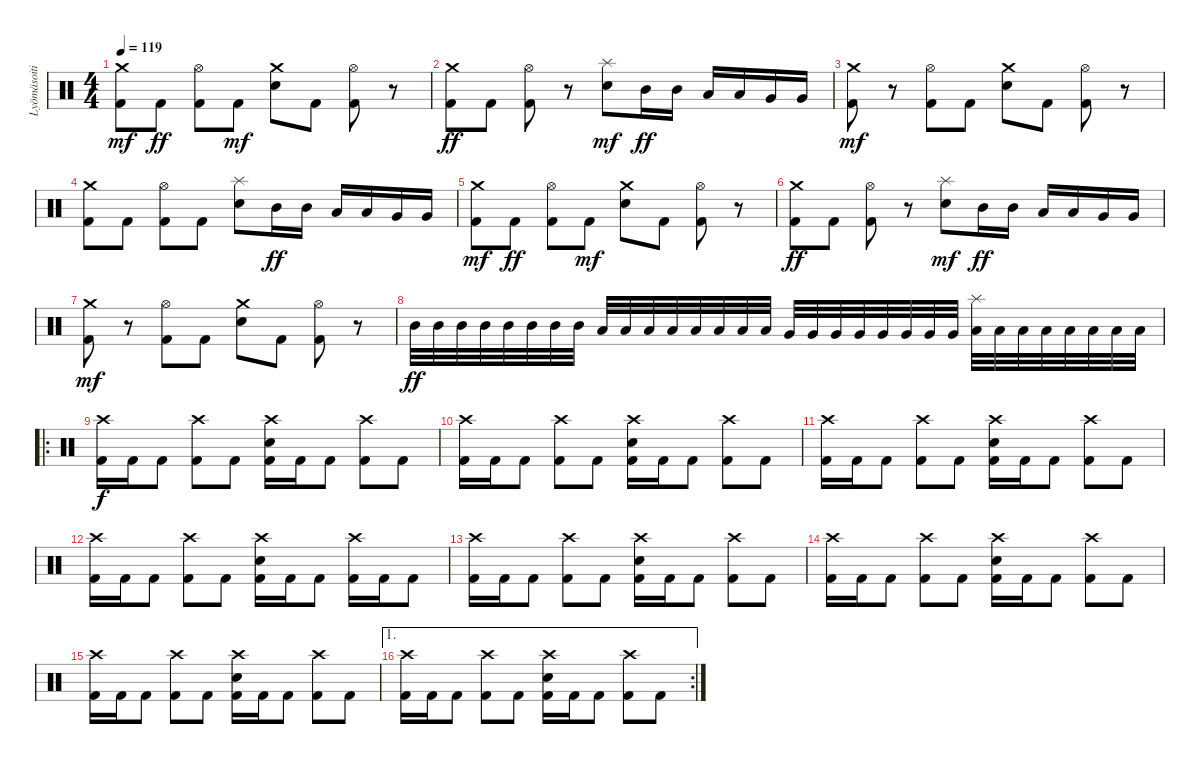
\track ("Lyömäsoitin" "Lyömäsoiti") {instrument percussion}
\staff {score}
\articulation defaults
\ts (4 4)
\tempo 119
\clef neutral
\ks c
("Crash medium (hit)" "Kick (hit) 2").8{dy mf} "Kick (hit) 2".8{dy ff} ("Hi-Hat (open)" "Kick (hit) 2").8 "Kick (hit) 2".8{dy mf} ("Crash medium (hit)" "Snare (hit) 2").8 "Kick (hit) 2".8 ("Hi-Hat (open)" "Kick (hit) 2").8 r.8 |
("Crash medium (hit)" "Kick (hit) 2").8{dy ff} "Kick (hit) 2".8 ("Hi-Hat (open)" "Kick (hit) 2").8 r.8 ("Splash (hit)" "Snare (hit) 2").8{dy mf} "Mid Tom (hit)".16{dy ff} "Mid Tom (hit)".16 "Low Tom (hit)".16 "Low Tom (hit)".16 "Very Low Tom (hit)".16 "Very Low Tom (hit)".16 |
("Crash medium (hit)" "Kick (hit) 2").8{dy mf} r.8 ("Hi-Hat (open)" "Kick (hit) 2").8 "Kick (hit) 2".8 ("Crash medium (hit)" "Snare (hit) 2").8 "Kick (hit) 2".8 ("Hi-Hat (open)" "Kick (hit) 2").8 r.8 |
("Crash medium (hit)" "Kick (hit) 2").8 "Kick (hit) 2".8 ("Hi-Hat (open)" "Kick (hit) 2").8 "Kick (hit) 2".8 ("Splash (hit)" "Snare (hit) 2").8 "Mid Tom (hit)".16{dy ff} "Mid Tom (hit)".16 "Low Tom (hit)".16 "Low Tom (hit)".16 "Very Low Tom (hit)".16 "Very Low Tom (hit)".16 |
("Crash medium (hit)" "Kick (hit) 2").8{dy mf} "Kick (hit) 2".8{dy ff} ("Hi-Hat (open)" "Kick (hit) 2").8 "Kick (hit) 2".8{dy mf} ("Crash medium (hit)" "Snare (hit) 2").8 "Kick (hit) 2".8 ("Hi-Hat (open)" "Kick (hit) 2").8 r.8 |
("Crash medium (hit)" "Kick (hit) 2").8{dy ff} "Kick (hit) 2".8 ("Hi-Hat (open)" "Kick (hit) 2").8 r.8 ("Splash (hit)" "Snare (hit) 2").8{dy mf} "Mid Tom (hit)".16{dy ff} "Mid Tom (hit)".16 "Low Tom (hit)".16 "Low Tom (hit)".16 "Very Low Tom (hit)".16 "Very Low Tom (hit)".16 |
("Crash medium (hit)" "Kick (hit) 2").8{dy mf} r.8 ("Hi-Hat (open)" "Kick (hit) 2").8 "Kick (hit) 2".8 ("Crash medium (hit)" "Snare (hit) 2").8 "Kick (hit) 2".8 ("Hi-Hat (open)" "Kick (hit) 2").8 r.8 |
"Mid Tom (hit)".32{dy ff} "Mid Tom (hit)".32 "Mid Tom (hit)".32 "Mid Tom (hit)".32 "Mid Tom (hit)".32 "Mid Tom (hit)".32 "Mid Tom (hit)".32 "Mid Tom (hit)".32 "Low Tom (hit)".32 "Low Tom (hit)".32 "Low Tom (hit)".32 "Low Tom (hit)".32 "Low Tom (hit)".32 "Low Tom (hit)".32 "Low Tom (hit)".32 "Low Tom (hit)".32 "Very Low Tom (hit)".32 "Very Low Tom (hit)".32 "Very Low Tom (hit)".32 "Very Low Tom (hit)".32 "Very Low Tom (hit)".32 "Very Low Tom (hit)".32 "Very Low Tom (hit)".32 "Very Low Tom (hit)".32 ("Splash (hit)" "Low Floor Tom (hit)").32 "Low Floor Tom (hit)".32 "Low Floor Tom (hit)".32 "Low Floor Tom (hit)".32 "Low Floor Tom (hit)".32 "Low Floor Tom (hit)".32 "Low Floor Tom (hit)".32 "Low Floor Tom (hit)".32 |
\ro
("Crash high (hit)" "Kick (hit) 2").16{dy f} "Kick (hit) 2".16 "Kick (hit) 2".8 ("Crash high (hit)" "Kick (hit) 2").8 "Kick (hit) 2".8 ("Crash high (hit)" "Snare (hit) 2" "Kick (hit) 2").16 "Kick (hit) 2".16 "Kick (hit) 2".8 ("Crash high (hit)" "Kick (hit) 2").8 "Kick (hit) 2".8 |
("Crash high (hit)" "Kick (hit) 2").16 "Kick (hit) 2".16 "Kick (hit) 2".8 ("Crash high (hit)" "Kick (hit) 2").8 "Kick (hit) 2".8 ("Crash high (hit)" "Snare (hit) 2" "Kick (hit) 2").16 "Kick (hit) 2".16 "Kick (hit) 2".8 ("Crash high (hit)" "Kick (hit) 2").8 "Kick (hit) 2".8 |
("Crash high (hit)" "Kick (hit) 2").16 "Kick (hit) 2".16 "Kick (hit) 2".8 ("Crash high (hit)" "Kick (hit) 2").8 "Kick (hit) 2".8 ("Crash high (hit)" "Snare (hit) 2" "Kick (hit) 2").16 "Kick (hit) 2".16 "Kick (hit) 2".8 ("Crash high (hit)" "Kick (hit) 2").8 "Kick (hit) 2".8 |
("Crash high (hit)" "Kick (hit) 2").16 "Kick (hit) 2".16 "Kick (hit) 2".8 ("Crash high (hit)" "Kick (hit) 2").8 "Kick (hit) 2".8 ("Crash high (hit)" "Snare (hit) 2" "Kick (hit) 2").16 "Kick (hit) 2".16 "Kick (hit) 2".8 ("Crash high (hit)" "Kick (hit) 2").16 "Kick (hit) 2".16 "Kick (hit) 2".8 |
("Crash high (hit)" "Kick (hit) 2").16 "Kick (hit) 2".16 "Kick (hit) 2".8 ("Crash high (hit)" "Kick (hit) 2").8 "Kick (hit) 2".8 ("Crash high (hit)" "Snare (hit) 2" "Kick (hit) 2").16 "Kick (hit) 2".16 "Kick (hit) 2".8 ("Crash high (hit)" "Kick (hit) 2").8 "Kick (hit) 2".8 |
("Crash high (hit)" "Kick (hit) 2").16 "Kick (hit) 2".16 "Kick (hit) 2".8 ("Crash high (hit)" "Kick (hit) 2").8 "Kick (hit) 2".8 ("Crash high (hit)" "Snare (hit) 2" "Kick (hit) 2").16 "Kick (hit) 2".16 "Kick (hit) 2".8 ("Crash high (hit)" "Kick (hit) 2").8 "Kick (hit) 2".8 |
("Crash high (hit)" "Kick (hit) 2").16 "Kick (hit) 2".16 "Kick (hit) 2".8 ("Crash high (hit)" "Kick (hit) 2").8 "Kick (hit) 2".8 ("Crash high (hit)" "Snare (hit) 2" "Kick (hit) 2").16 "Kick (hit) 2".16 "Kick (hit) 2".8 ("Crash high (hit)" "Kick (hit) 2").8 "Kick (hit) 2".8 |
\ae 1
\rc 2
("Crash high (hit)" "Kick (hit) 2").16 "Kick (hit) 2".16 "Kick (hit) 2".8 ("Crash high (hit)" "Kick (hit) 2").8 "Kick (hit) 2".8 ("Crash high (hit)" "Snare (hit) 2" "Kick (hit) 2").16 "Kick (hit) 2".16 "Kick (hit) 2".8 ("Crash high (hit)" "Kick (hit) 2").8 "Kick (hit) 2".8
